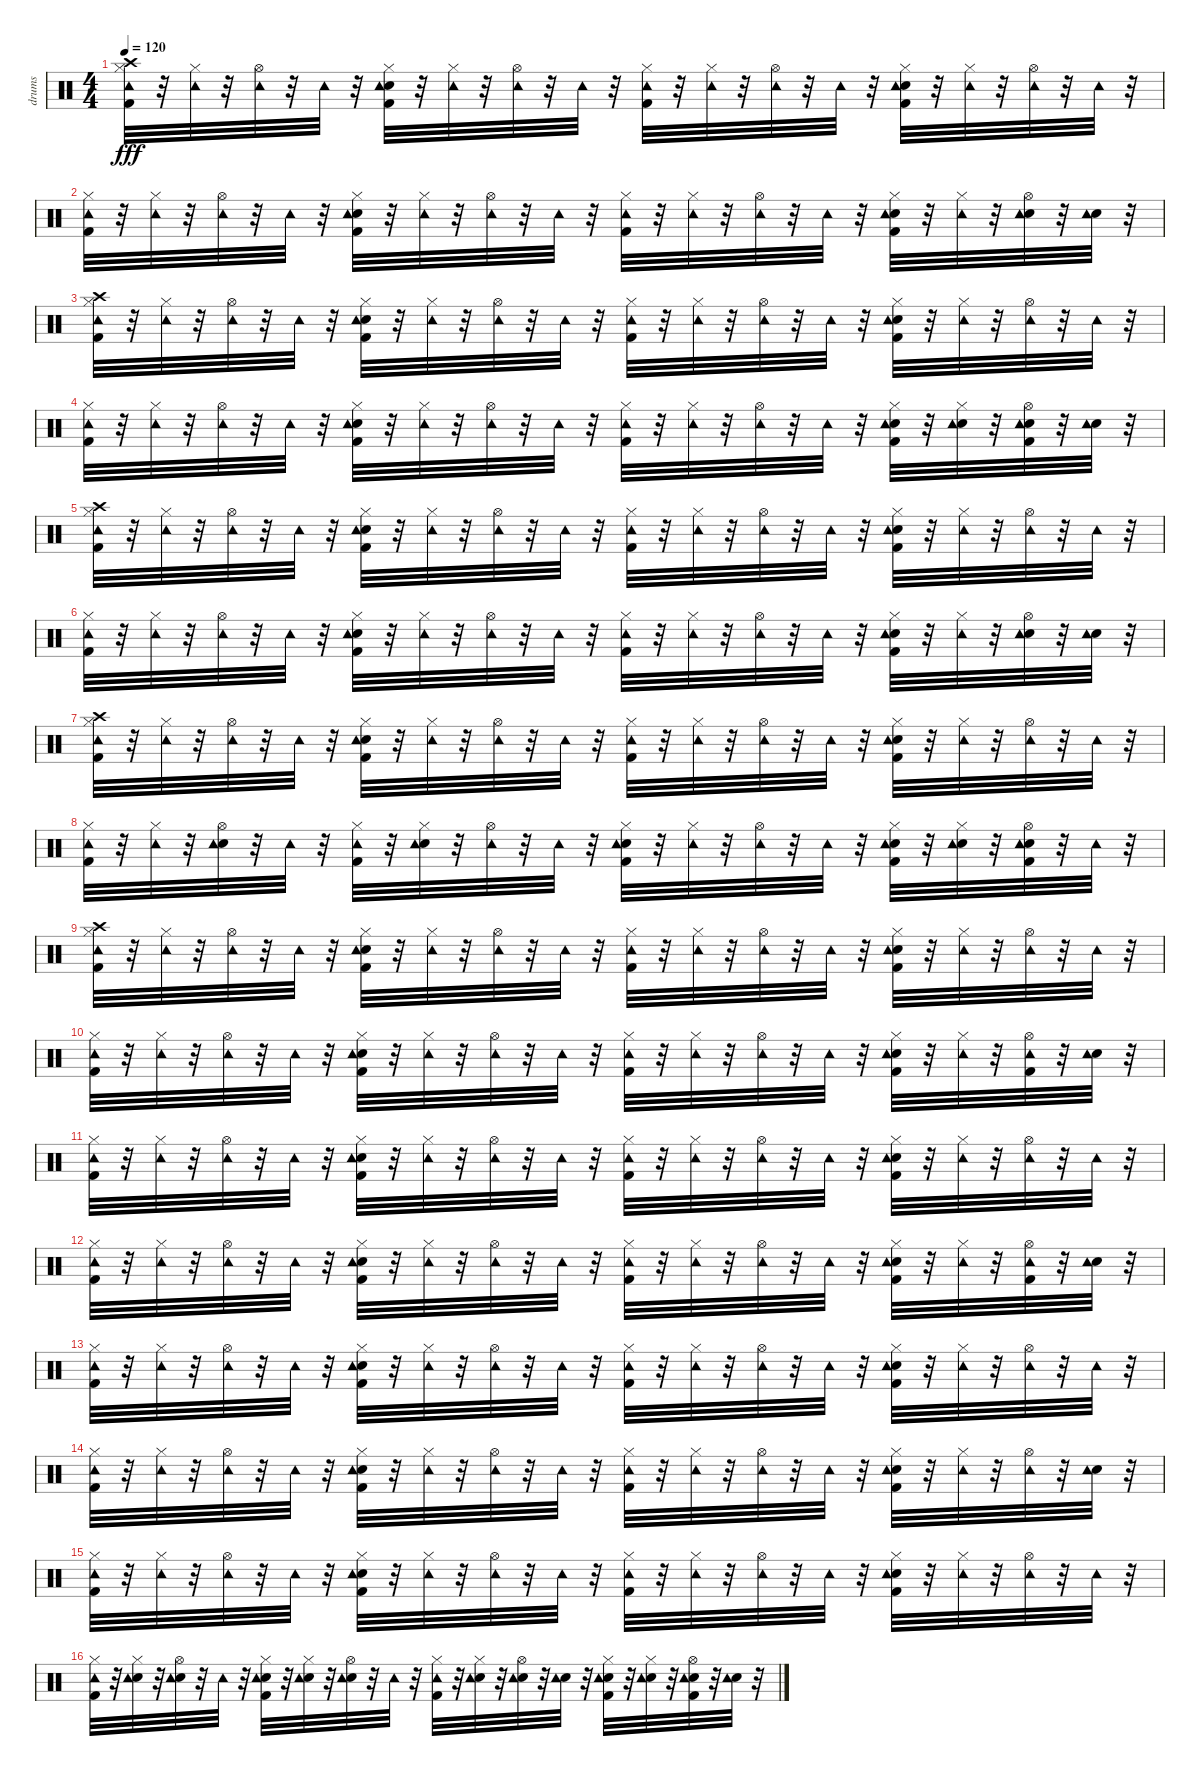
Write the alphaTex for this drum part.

\track ("drums" "drums") {instrument percussion}
\staff {score}
\articulation defaults
\ts (4 4)
\tempo 120
\clef neutral
\ks c
("Crash high (hit)" "Kick (hit) 2" "Hi-Hat (closed)" "Tambourine (hit)").32{dy fff} r.32 ("Hi-Hat (closed)" "Tambourine (hit)").32 r.32 ("Hi-Hat (open)" "Tambourine (hit)").32 r.32 "Tambourine (hit)".32 r.32 ("Snare (hit) 2" "Kick (hit) 2" "Hi-Hat (closed)" "Tambourine (hit)").32 r.32 ("Hi-Hat (closed)" "Tambourine (hit)").32 r.32 ("Hi-Hat (open)" "Tambourine (hit)").32 r.32 "Tambourine (hit)".32 r.32 ("Kick (hit) 2" "Hi-Hat (closed)" "Tambourine (hit)").32 r.32 ("Hi-Hat (closed)" "Tambourine (hit)").32 r.32 ("Hi-Hat (open)" "Tambourine (hit)").32 r.32 "Tambourine (hit)".32 r.32 ("Snare (hit) 2" "Kick (hit) 2" "Hi-Hat (closed)" "Tambourine (hit)").32 r.32 ("Hi-Hat (closed)" "Tambourine (hit)").32 r.32 ("Hi-Hat (open)" "Tambourine (hit)").32 r.32 "Tambourine (hit)".32 r.32 |
("Kick (hit) 2" "Hi-Hat (closed)" "Tambourine (hit)").32 r.32 ("Hi-Hat (closed)" "Tambourine (hit)").32 r.32 ("Hi-Hat (open)" "Tambourine (hit)").32 r.32 "Tambourine (hit)".32 r.32 ("Snare (hit) 2" "Kick (hit) 2" "Hi-Hat (closed)" "Tambourine (hit)").32 r.32 ("Hi-Hat (closed)" "Tambourine (hit)").32 r.32 ("Hi-Hat (open)" "Tambourine (hit)").32 r.32 "Tambourine (hit)".32 r.32 ("Kick (hit) 2" "Hi-Hat (closed)" "Tambourine (hit)").32 r.32 ("Hi-Hat (closed)" "Tambourine (hit)").32 r.32 ("Hi-Hat (open)" "Tambourine (hit)").32 r.32 "Tambourine (hit)".32 r.32 ("Snare (hit) 2" "Kick (hit) 2" "Hi-Hat (closed)" "Tambourine (hit)").32 r.32 ("Hi-Hat (closed)" "Tambourine (hit)").32 r.32 ("Snare (hit) 2" "Hi-Hat (open)" "Tambourine (hit)").32 r.32 ("Snare (hit) 2" "Tambourine (hit)").32 r.32 |
("Crash high (hit)" "Kick (hit) 2" "Hi-Hat (closed)" "Tambourine (hit)").32 r.32 ("Hi-Hat (closed)" "Tambourine (hit)").32 r.32 ("Hi-Hat (open)" "Tambourine (hit)").32 r.32 "Tambourine (hit)".32 r.32 ("Snare (hit) 2" "Kick (hit) 2" "Hi-Hat (closed)" "Tambourine (hit)").32 r.32 ("Hi-Hat (closed)" "Tambourine (hit)").32 r.32 ("Hi-Hat (open)" "Tambourine (hit)").32 r.32 "Tambourine (hit)".32 r.32 ("Kick (hit) 2" "Hi-Hat (closed)" "Tambourine (hit)").32 r.32 ("Hi-Hat (closed)" "Tambourine (hit)").32 r.32 ("Hi-Hat (open)" "Tambourine (hit)").32 r.32 "Tambourine (hit)".32 r.32 ("Snare (hit) 2" "Kick (hit) 2" "Hi-Hat (closed)" "Tambourine (hit)").32 r.32 ("Hi-Hat (closed)" "Tambourine (hit)").32 r.32 ("Hi-Hat (open)" "Tambourine (hit)").32 r.32 "Tambourine (hit)".32 r.32 |
("Kick (hit) 2" "Hi-Hat (closed)" "Tambourine (hit)").32 r.32 ("Hi-Hat (closed)" "Tambourine (hit)").32 r.32 ("Hi-Hat (open)" "Tambourine (hit)").32 r.32 "Tambourine (hit)".32 r.32 ("Snare (hit) 2" "Kick (hit) 2" "Hi-Hat (closed)" "Tambourine (hit)").32 r.32 ("Hi-Hat (closed)" "Tambourine (hit)").32 r.32 ("Hi-Hat (open)" "Tambourine (hit)").32 r.32 "Tambourine (hit)".32 r.32 ("Kick (hit) 2" "Hi-Hat (closed)" "Tambourine (hit)").32 r.32 ("Hi-Hat (closed)" "Tambourine (hit)").32 r.32 ("Hi-Hat (open)" "Tambourine (hit)").32 r.32 "Tambourine (hit)".32 r.32 ("Snare (hit) 2" "Kick (hit) 2" "Hi-Hat (closed)" "Tambourine (hit)").32 r.32 ("Snare (hit) 2" "Hi-Hat (closed)" "Tambourine (hit)").32 r.32 ("Kick (hit) 2" "Snare (hit) 2" "Hi-Hat (open)" "Tambourine (hit)").32 r.32 ("Snare (hit) 2" "Tambourine (hit)").32 r.32 |
("Crash high (hit)" "Kick (hit) 2" "Hi-Hat (closed)" "Tambourine (hit)").32 r.32 ("Hi-Hat (closed)" "Tambourine (hit)").32 r.32 ("Hi-Hat (open)" "Tambourine (hit)").32 r.32 "Tambourine (hit)".32 r.32 ("Snare (hit) 2" "Kick (hit) 2" "Hi-Hat (closed)" "Tambourine (hit)").32 r.32 ("Hi-Hat (closed)" "Tambourine (hit)").32 r.32 ("Hi-Hat (open)" "Tambourine (hit)").32 r.32 "Tambourine (hit)".32 r.32 ("Kick (hit) 2" "Hi-Hat (closed)" "Tambourine (hit)").32 r.32 ("Hi-Hat (closed)" "Tambourine (hit)").32 r.32 ("Hi-Hat (open)" "Tambourine (hit)").32 r.32 "Tambourine (hit)".32 r.32 ("Snare (hit) 2" "Kick (hit) 2" "Hi-Hat (closed)" "Tambourine (hit)").32 r.32 ("Hi-Hat (closed)" "Tambourine (hit)").32 r.32 ("Hi-Hat (open)" "Tambourine (hit)").32 r.32 "Tambourine (hit)".32 r.32 |
("Kick (hit) 2" "Hi-Hat (closed)" "Tambourine (hit)").32 r.32 ("Hi-Hat (closed)" "Tambourine (hit)").32 r.32 ("Hi-Hat (open)" "Tambourine (hit)").32 r.32 "Tambourine (hit)".32 r.32 ("Snare (hit) 2" "Kick (hit) 2" "Hi-Hat (closed)" "Tambourine (hit)").32 r.32 ("Hi-Hat (closed)" "Tambourine (hit)").32 r.32 ("Hi-Hat (open)" "Tambourine (hit)").32 r.32 "Tambourine (hit)".32 r.32 ("Kick (hit) 2" "Hi-Hat (closed)" "Tambourine (hit)").32 r.32 ("Hi-Hat (closed)" "Tambourine (hit)").32 r.32 ("Hi-Hat (open)" "Tambourine (hit)").32 r.32 "Tambourine (hit)".32 r.32 ("Snare (hit) 2" "Kick (hit) 2" "Hi-Hat (closed)" "Tambourine (hit)").32 r.32 ("Hi-Hat (closed)" "Tambourine (hit)").32 r.32 ("Snare (hit) 2" "Hi-Hat (open)" "Tambourine (hit)").32 r.32 ("Snare (hit) 2" "Tambourine (hit)").32 r.32 |
("Crash high (hit)" "Kick (hit) 2" "Hi-Hat (closed)" "Tambourine (hit)").32 r.32 ("Hi-Hat (closed)" "Tambourine (hit)").32 r.32 ("Hi-Hat (open)" "Tambourine (hit)").32 r.32 "Tambourine (hit)".32 r.32 ("Snare (hit) 2" "Kick (hit) 2" "Hi-Hat (closed)" "Tambourine (hit)").32 r.32 ("Hi-Hat (closed)" "Tambourine (hit)").32 r.32 ("Hi-Hat (open)" "Tambourine (hit)").32 r.32 "Tambourine (hit)".32 r.32 ("Kick (hit) 2" "Hi-Hat (closed)" "Tambourine (hit)").32 r.32 ("Hi-Hat (closed)" "Tambourine (hit)").32 r.32 ("Hi-Hat (open)" "Tambourine (hit)").32 r.32 "Tambourine (hit)".32 r.32 ("Snare (hit) 2" "Kick (hit) 2" "Hi-Hat (closed)" "Tambourine (hit)").32 r.32 ("Hi-Hat (closed)" "Tambourine (hit)").32 r.32 ("Hi-Hat (open)" "Tambourine (hit)").32 r.32 "Tambourine (hit)".32 r.32 |
("Kick (hit) 2" "Hi-Hat (closed)" "Tambourine (hit)").32 r.32 ("Hi-Hat (closed)" "Tambourine (hit)").32 r.32 ("Snare (hit) 2" "Hi-Hat (open)" "Tambourine (hit)").32 r.32 "Tambourine (hit)".32 r.32 ("Kick (hit) 2" "Hi-Hat (closed)" "Tambourine (hit)").32 r.32 ("Snare (hit) 2" "Hi-Hat (closed)" "Tambourine (hit)").32 r.32 ("Hi-Hat (open)" "Tambourine (hit)").32 r.32 "Tambourine (hit)".32 r.32 ("Kick (hit) 2" "Snare (hit) 2" "Hi-Hat (closed)" "Tambourine (hit)").32 r.32 ("Hi-Hat (closed)" "Tambourine (hit)").32 r.32 ("Hi-Hat (open)" "Tambourine (hit)").32 r.32 "Tambourine (hit)".32 r.32 ("Snare (hit) 2" "Kick (hit) 2" "Hi-Hat (closed)" "Tambourine (hit)").32 r.32 ("Snare (hit) 2" "Hi-Hat (closed)" "Tambourine (hit)").32 r.32 ("Kick (hit) 2" "Snare (hit) 2" "Hi-Hat (open)" "Tambourine (hit)").32 r.32 "Tambourine (hit)".32 r.32 |
("Crash high (hit)" "Kick (hit) 2" "Hi-Hat (closed)" "Tambourine (hit)").32 r.32 ("Hi-Hat (closed)" "Tambourine (hit)").32 r.32 ("Hi-Hat (open)" "Tambourine (hit)").32 r.32 "Tambourine (hit)".32 r.32 ("Snare (hit) 2" "Kick (hit) 2" "Hi-Hat (closed)" "Tambourine (hit)").32 r.32 ("Hi-Hat (closed)" "Tambourine (hit)").32 r.32 ("Hi-Hat (open)" "Tambourine (hit)").32 r.32 "Tambourine (hit)".32 r.32 ("Kick (hit) 2" "Hi-Hat (closed)" "Tambourine (hit)").32 r.32 ("Hi-Hat (closed)" "Tambourine (hit)").32 r.32 ("Hi-Hat (open)" "Tambourine (hit)").32 r.32 "Tambourine (hit)".32 r.32 ("Snare (hit) 2" "Kick (hit) 2" "Hi-Hat (closed)" "Tambourine (hit)").32 r.32 ("Hi-Hat (closed)" "Tambourine (hit)").32 r.32 ("Hi-Hat (open)" "Tambourine (hit)").32 r.32 "Tambourine (hit)".32 r.32 |
("Kick (hit) 2" "Hi-Hat (closed)" "Tambourine (hit)").32 r.32 ("Hi-Hat (closed)" "Tambourine (hit)").32 r.32 ("Hi-Hat (open)" "Tambourine (hit)").32 r.32 "Tambourine (hit)".32 r.32 ("Snare (hit) 2" "Kick (hit) 2" "Hi-Hat (closed)" "Tambourine (hit)").32 r.32 ("Hi-Hat (closed)" "Tambourine (hit)").32 r.32 ("Hi-Hat (open)" "Tambourine (hit)").32 r.32 "Tambourine (hit)".32 r.32 ("Kick (hit) 2" "Hi-Hat (closed)" "Tambourine (hit)").32 r.32 ("Hi-Hat (closed)" "Tambourine (hit)").32 r.32 ("Hi-Hat (open)" "Tambourine (hit)").32 r.32 "Tambourine (hit)".32 r.32 ("Snare (hit) 2" "Kick (hit) 2" "Hi-Hat (closed)" "Tambourine (hit)").32 r.32 ("Hi-Hat (closed)" "Tambourine (hit)").32 r.32 ("Kick (hit) 2" "Hi-Hat (open)" "Tambourine (hit)").32 r.32 ("Snare (hit) 2" "Tambourine (hit)").32 r.32 |
("Kick (hit) 2" "Hi-Hat (closed)" "Tambourine (hit)").32 r.32 ("Hi-Hat (closed)" "Tambourine (hit)").32 r.32 ("Hi-Hat (open)" "Tambourine (hit)").32 r.32 "Tambourine (hit)".32 r.32 ("Snare (hit) 2" "Kick (hit) 2" "Hi-Hat (closed)" "Tambourine (hit)").32 r.32 ("Hi-Hat (closed)" "Tambourine (hit)").32 r.32 ("Hi-Hat (open)" "Tambourine (hit)").32 r.32 "Tambourine (hit)".32 r.32 ("Kick (hit) 2" "Hi-Hat (closed)" "Tambourine (hit)").32 r.32 ("Hi-Hat (closed)" "Tambourine (hit)").32 r.32 ("Hi-Hat (open)" "Tambourine (hit)").32 r.32 "Tambourine (hit)".32 r.32 ("Snare (hit) 2" "Kick (hit) 2" "Hi-Hat (closed)" "Tambourine (hit)").32 r.32 ("Hi-Hat (closed)" "Tambourine (hit)").32 r.32 ("Hi-Hat (open)" "Tambourine (hit)").32 r.32 "Tambourine (hit)".32 r.32 |
("Kick (hit) 2" "Hi-Hat (closed)" "Tambourine (hit)").32 r.32 ("Hi-Hat (closed)" "Tambourine (hit)").32 r.32 ("Hi-Hat (open)" "Tambourine (hit)").32 r.32 "Tambourine (hit)".32 r.32 ("Snare (hit) 2" "Kick (hit) 2" "Hi-Hat (closed)" "Tambourine (hit)").32 r.32 ("Hi-Hat (closed)" "Tambourine (hit)").32 r.32 ("Hi-Hat (open)" "Tambourine (hit)").32 r.32 "Tambourine (hit)".32 r.32 ("Kick (hit) 2" "Hi-Hat (closed)" "Tambourine (hit)").32 r.32 ("Hi-Hat (closed)" "Tambourine (hit)").32 r.32 ("Hi-Hat (open)" "Tambourine (hit)").32 r.32 "Tambourine (hit)".32 r.32 ("Snare (hit) 2" "Kick (hit) 2" "Hi-Hat (closed)" "Tambourine (hit)").32 r.32 ("Hi-Hat (closed)" "Tambourine (hit)").32 r.32 ("Kick (hit) 2" "Hi-Hat (open)" "Tambourine (hit)").32 r.32 ("Snare (hit) 2" "Tambourine (hit)").32 r.32 |
("Kick (hit) 2" "Hi-Hat (closed)" "Tambourine (hit)").32 r.32 ("Hi-Hat (closed)" "Tambourine (hit)").32 r.32 ("Hi-Hat (open)" "Tambourine (hit)").32 r.32 "Tambourine (hit)".32 r.32 ("Snare (hit) 2" "Kick (hit) 2" "Hi-Hat (closed)" "Tambourine (hit)").32 r.32 ("Hi-Hat (closed)" "Tambourine (hit)").32 r.32 ("Hi-Hat (open)" "Tambourine (hit)").32 r.32 "Tambourine (hit)".32 r.32 ("Kick (hit) 2" "Hi-Hat (closed)" "Tambourine (hit)").32 r.32 ("Hi-Hat (closed)" "Tambourine (hit)").32 r.32 ("Hi-Hat (open)" "Tambourine (hit)").32 r.32 "Tambourine (hit)".32 r.32 ("Snare (hit) 2" "Kick (hit) 2" "Hi-Hat (closed)" "Tambourine (hit)").32 r.32 ("Hi-Hat (closed)" "Tambourine (hit)").32 r.32 ("Hi-Hat (open)" "Tambourine (hit)").32 r.32 "Tambourine (hit)".32 r.32 |
("Kick (hit) 2" "Hi-Hat (closed)" "Tambourine (hit)").32 r.32 ("Hi-Hat (closed)" "Tambourine (hit)").32 r.32 ("Hi-Hat (open)" "Tambourine (hit)").32 r.32 "Tambourine (hit)".32 r.32 ("Snare (hit) 2" "Kick (hit) 2" "Hi-Hat (closed)" "Tambourine (hit)").32 r.32 ("Hi-Hat (closed)" "Tambourine (hit)").32 r.32 ("Hi-Hat (open)" "Tambourine (hit)").32 r.32 "Tambourine (hit)".32 r.32 ("Kick (hit) 2" "Hi-Hat (closed)" "Tambourine (hit)").32 r.32 ("Hi-Hat (closed)" "Tambourine (hit)").32 r.32 ("Hi-Hat (open)" "Tambourine (hit)").32 r.32 "Tambourine (hit)".32 r.32 ("Snare (hit) 2" "Kick (hit) 2" "Hi-Hat (closed)" "Tambourine (hit)").32 r.32 ("Hi-Hat (closed)" "Tambourine (hit)").32 r.32 ("Hi-Hat (open)" "Tambourine (hit)").32 r.32 ("Snare (hit) 2" "Tambourine (hit)").32 r.32 |
("Kick (hit) 2" "Hi-Hat (closed)" "Tambourine (hit)").32 r.32 ("Hi-Hat (closed)" "Tambourine (hit)").32 r.32 ("Hi-Hat (open)" "Tambourine (hit)").32 r.32 "Tambourine (hit)".32 r.32 ("Snare (hit) 2" "Kick (hit) 2" "Hi-Hat (closed)" "Tambourine (hit)").32 r.32 ("Hi-Hat (closed)" "Tambourine (hit)").32 r.32 ("Hi-Hat (open)" "Tambourine (hit)").32 r.32 "Tambourine (hit)".32 r.32 ("Kick (hit) 2" "Hi-Hat (closed)" "Tambourine (hit)").32 r.32 ("Hi-Hat (closed)" "Tambourine (hit)").32 r.32 ("Hi-Hat (open)" "Tambourine (hit)").32 r.32 "Tambourine (hit)".32 r.32 ("Snare (hit) 2" "Kick (hit) 2" "Hi-Hat (closed)" "Tambourine (hit)").32 r.32 ("Hi-Hat (closed)" "Tambourine (hit)").32 r.32 ("Hi-Hat (open)" "Tambourine (hit)").32 r.32 "Tambourine (hit)".32 r.32 |
("Kick (hit) 2" "Hi-Hat (closed)" "Tambourine (hit)").32 r.32 ("Snare (hit) 2" "Hi-Hat (closed)" "Tambourine (hit)").32 r.32 ("Snare (hit) 2" "Hi-Hat (open)" "Tambourine (hit)").32 r.32 "Tambourine (hit)".32 r.32 ("Snare (hit) 2" "Kick (hit) 2" "Hi-Hat (closed)" "Tambourine (hit)").32 r.32 ("Snare (hit) 2" "Hi-Hat (closed)" "Tambourine (hit)").32 r.32 ("Snare (hit) 2" "Hi-Hat (open)" "Tambourine (hit)").32 r.32 "Tambourine (hit)".32 r.32 ("Kick (hit) 2" "Hi-Hat (closed)" "Tambourine (hit)").32 r.32 ("Snare (hit) 2" "Hi-Hat (closed)" "Tambourine (hit)").32 r.32 ("Snare (hit) 2" "Hi-Hat (open)" "Tambourine (hit)").32 r.32 ("Snare (hit) 2" "Tambourine (hit)").32 r.32 ("Snare (hit) 2" "Kick (hit) 2" "Hi-Hat (closed)" "Tambourine (hit)").32 r.32 ("Snare (hit) 2" "Hi-Hat (closed)" "Tambourine (hit)").32 r.32 ("Kick (hit) 2" "Snare (hit) 2" "Hi-Hat (open)" "Tambourine (hit)").32 r.32 ("Snare (hit) 2" "Tambourine (hit)").32 r.32
